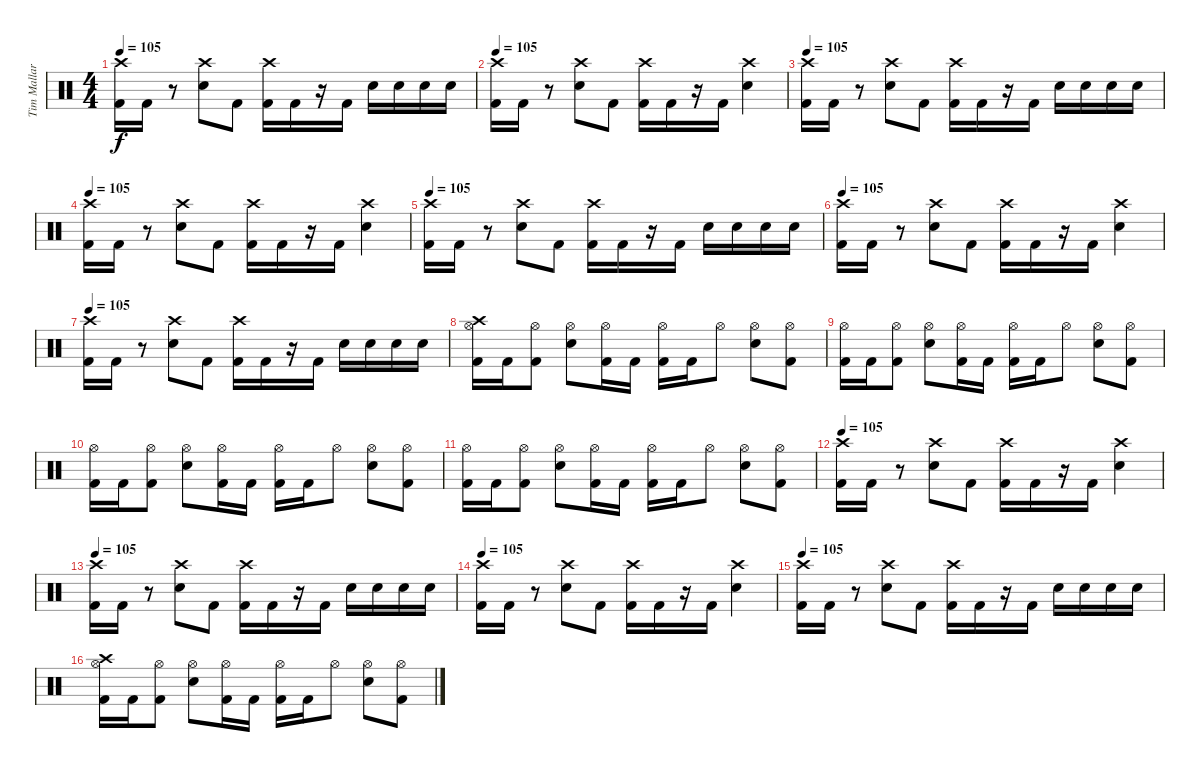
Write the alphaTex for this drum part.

\track ("Tim Mallare" "Tim Mallar") {instrument percussion}
\staff {score}
\articulation defaults
\ts (4 4)
\tempo 105
\clef neutral
\ks c
("Crash high (hit)" "Kick (hit) 2").16{dy f} "Kick (hit) 2".16 r.8 ("Crash high (hit)" "Electric Snare (hit)").8 "Kick (hit) 2".8 ("Crash high (hit)" "Kick (hit) 2").16 "Kick (hit) 2".16 r.16 "Kick (hit) 2".16 "Electric Snare (hit)".16 "Electric Snare (hit)".16 "Electric Snare (hit)".16 "Electric Snare (hit)".16 |
\tempo 105
("Crash high (hit)" "Kick (hit) 2").16 "Kick (hit) 2".16 r.8 ("Crash high (hit)" "Electric Snare (hit)").8 "Kick (hit) 2".8 ("Crash high (hit)" "Kick (hit) 2").16 "Kick (hit) 2".16 r.16 "Kick (hit) 2".16 ("Crash high (hit)" "Electric Snare (hit)").4 |
\tempo 105
("Crash high (hit)" "Kick (hit) 2").16 "Kick (hit) 2".16 r.8 ("Crash high (hit)" "Electric Snare (hit)").8 "Kick (hit) 2".8 ("Crash high (hit)" "Kick (hit) 2").16 "Kick (hit) 2".16 r.16 "Kick (hit) 2".16 "Electric Snare (hit)".16 "Electric Snare (hit)".16 "Electric Snare (hit)".16 "Electric Snare (hit)".16 |
\tempo 105
("Crash high (hit)" "Kick (hit) 2").16 "Kick (hit) 2".16 r.8 ("Crash high (hit)" "Electric Snare (hit)").8 "Kick (hit) 2".8 ("Crash high (hit)" "Kick (hit) 2").16 "Kick (hit) 2".16 r.16 "Kick (hit) 2".16 ("Crash high (hit)" "Electric Snare (hit)").4 |
\tempo 105
("Crash high (hit)" "Kick (hit) 2").16 "Kick (hit) 2".16 r.8 ("Crash high (hit)" "Electric Snare (hit)").8 "Kick (hit) 2".8 ("Crash high (hit)" "Kick (hit) 2").16 "Kick (hit) 2".16 r.16 "Kick (hit) 2".16 "Electric Snare (hit)".16 "Electric Snare (hit)".16 "Electric Snare (hit)".16 "Electric Snare (hit)".16 |
\tempo 105
("Crash high (hit)" "Kick (hit) 2").16 "Kick (hit) 2".16 r.8 ("Crash high (hit)" "Electric Snare (hit)").8 "Kick (hit) 2".8 ("Crash high (hit)" "Kick (hit) 2").16 "Kick (hit) 2".16 r.16 "Kick (hit) 2".16 ("Crash high (hit)" "Electric Snare (hit)").4 |
\tempo 105
("Crash high (hit)" "Kick (hit) 2").16 "Kick (hit) 2".16 r.8 ("Crash high (hit)" "Electric Snare (hit)").8 "Kick (hit) 2".8 ("Crash high (hit)" "Kick (hit) 2").16 "Kick (hit) 2".16 r.16 "Kick (hit) 2".16 "Electric Snare (hit)".16 "Electric Snare (hit)".16 "Electric Snare (hit)".16 "Electric Snare (hit)".16 |
("Hi-Hat (open)" "Crash high (hit)" "Kick (hit) 2").16 "Kick (hit) 2".16 ("Hi-Hat (open)" "Kick (hit) 2").8 ("Hi-Hat (open)" "Electric Snare (hit)").8 ("Hi-Hat (open)" "Kick (hit) 2").16 "Kick (hit) 2".16 ("Hi-Hat (open)" "Kick (hit) 2").16 "Kick (hit) 2".16 "Hi-Hat (open)".8 ("Hi-Hat (open)" "Electric Snare (hit)").8 ("Hi-Hat (open)" "Kick (hit) 2").8 |
("Hi-Hat (open)" "Kick (hit) 2").16 "Kick (hit) 2".16 ("Hi-Hat (open)" "Kick (hit) 2").8 ("Hi-Hat (open)" "Electric Snare (hit)").8 ("Hi-Hat (open)" "Kick (hit) 2").16 "Kick (hit) 2".16 ("Hi-Hat (open)" "Kick (hit) 2").16 "Kick (hit) 2".16 "Hi-Hat (open)".8 ("Hi-Hat (open)" "Electric Snare (hit)").8 ("Hi-Hat (open)" "Kick (hit) 2").8 |
("Hi-Hat (open)" "Kick (hit) 2").16 "Kick (hit) 2".16 ("Hi-Hat (open)" "Kick (hit) 2").8 ("Hi-Hat (open)" "Electric Snare (hit)").8 ("Hi-Hat (open)" "Kick (hit) 2").16 "Kick (hit) 2".16 ("Hi-Hat (open)" "Kick (hit) 2").16 "Kick (hit) 2".16 "Hi-Hat (open)".8 ("Hi-Hat (open)" "Electric Snare (hit)").8 ("Hi-Hat (open)" "Kick (hit) 2").8 |
("Hi-Hat (open)" "Kick (hit) 2").16 "Kick (hit) 2".16 ("Hi-Hat (open)" "Kick (hit) 2").8 ("Hi-Hat (open)" "Electric Snare (hit)").8 ("Hi-Hat (open)" "Kick (hit) 2").16 "Kick (hit) 2".16 ("Hi-Hat (open)" "Kick (hit) 2").16 "Kick (hit) 2".16 "Hi-Hat (open)".8 ("Hi-Hat (open)" "Electric Snare (hit)").8 ("Hi-Hat (open)" "Kick (hit) 2").8 |
\tempo 105
("Crash high (hit)" "Kick (hit) 2").16 "Kick (hit) 2".16 r.8 ("Crash high (hit)" "Electric Snare (hit)").8 "Kick (hit) 2".8 ("Crash high (hit)" "Kick (hit) 2").16 "Kick (hit) 2".16 r.16 "Kick (hit) 2".16 ("Crash high (hit)" "Electric Snare (hit)").4 |
\tempo 105
("Crash high (hit)" "Kick (hit) 2").16 "Kick (hit) 2".16 r.8 ("Crash high (hit)" "Electric Snare (hit)").8 "Kick (hit) 2".8 ("Crash high (hit)" "Kick (hit) 2").16 "Kick (hit) 2".16 r.16 "Kick (hit) 2".16 "Electric Snare (hit)".16 "Electric Snare (hit)".16 "Electric Snare (hit)".16 "Electric Snare (hit)".16 |
\tempo 105
("Crash high (hit)" "Kick (hit) 2").16 "Kick (hit) 2".16 r.8 ("Crash high (hit)" "Electric Snare (hit)").8 "Kick (hit) 2".8 ("Crash high (hit)" "Kick (hit) 2").16 "Kick (hit) 2".16 r.16 "Kick (hit) 2".16 ("Crash high (hit)" "Electric Snare (hit)").4 |
\tempo 105
("Crash high (hit)" "Kick (hit) 2").16 "Kick (hit) 2".16 r.8 ("Crash high (hit)" "Electric Snare (hit)").8 "Kick (hit) 2".8 ("Crash high (hit)" "Kick (hit) 2").16 "Kick (hit) 2".16 r.16 "Kick (hit) 2".16 "Electric Snare (hit)".16 "Electric Snare (hit)".16 "Electric Snare (hit)".16 "Electric Snare (hit)".16 |
("Hi-Hat (open)" "Crash high (hit)" "Kick (hit) 2").16 "Kick (hit) 2".16 ("Hi-Hat (open)" "Kick (hit) 2").8 ("Hi-Hat (open)" "Electric Snare (hit)").8 ("Hi-Hat (open)" "Kick (hit) 2").16 "Kick (hit) 2".16 ("Hi-Hat (open)" "Kick (hit) 2").16 "Kick (hit) 2".16 "Hi-Hat (open)".8 ("Hi-Hat (open)" "Electric Snare (hit)").8 ("Hi-Hat (open)" "Kick (hit) 2").8
